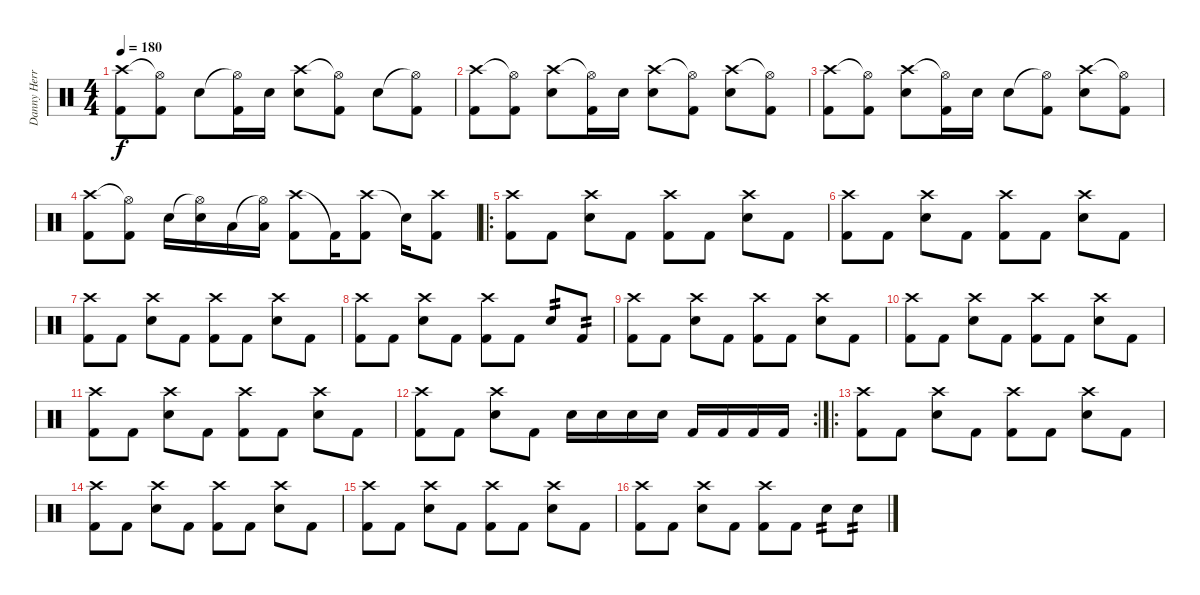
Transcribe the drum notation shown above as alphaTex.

\track ("Danny Herrera" "Danny Herr") {instrument percussion}
\staff {score}
\articulation defaults
\ts (4 4)
\tempo 180
\clef neutral
\ks c
("Crash high (hit)" "Kick (hit) 2").8{dy f} ("Hi-Hat (open)"{t} "Kick (hit) 2").8 "Snare (hit) 2".8 ("Hi-Hat (open)"{t} "Kick (hit) 2").16 "Snare (hit) 2".16 ("Crash high (hit)" "Snare (hit) 2").8 ("Hi-Hat (open)"{t} "Kick (hit) 2").8 "Snare (hit) 2".8 ("Hi-Hat (open)"{t} "Kick (hit) 2").8 |
("Crash high (hit)" "Kick (hit) 2").8 ("Hi-Hat (open)"{t} "Kick (hit) 2").8 ("Crash high (hit)" "Snare (hit) 2").8 ("Hi-Hat (open)"{t} "Kick (hit) 2").16 "Snare (hit) 2".16 ("Crash high (hit)" "Snare (hit) 2").8 ("Hi-Hat (open)"{t} "Kick (hit) 2").8 ("Crash high (hit)" "Snare (hit) 2").8 ("Hi-Hat (open)"{t} "Kick (hit) 2").8 |
("Crash high (hit)" "Kick (hit) 2").8 ("Hi-Hat (open)"{t} "Kick (hit) 2").8 ("Crash high (hit)" "Snare (hit) 2").8 ("Hi-Hat (open)"{t} "Kick (hit) 2").16 "Snare (hit) 2".16 "Snare (hit) 2".8 ("Hi-Hat (open)"{t} "Kick (hit) 2").8 ("Crash high (hit)" "Snare (hit) 2").8 ("Hi-Hat (open)"{t} "Kick (hit) 2").8 |
("Crash high (hit)" "Kick (hit) 2").8 ("Hi-Hat (open)"{t} "Kick (hit) 2").8 "Snare (hit) 2".16 ("Hi-Hat (open)"{t} "Snare (hit) 2").16 "Low Tom (hit)".16 ("Hi-Hat (open)"{t} "Low Tom (hit)").16 ("Crash high (hit)" "Kick (hit) 2").8 "Kick (hit) 2"{t}.16 ("Crash high (hit)" "Kick (hit) 2").8 "Snare (hit)"{t}.16 ("Crash high (hit)" "Kick (hit) 2").8 |
\ro
("Crash high (hit)" "Kick (hit) 2").8 "Kick (hit) 2".8 ("Crash high (hit)" "Snare (hit) 2").8 "Kick (hit) 2".8 ("Crash high (hit)" "Kick (hit) 2").8 "Kick (hit) 2".8 ("Crash high (hit)" "Snare (hit) 2").8 "Kick (hit) 2".8 |
("Crash high (hit)" "Kick (hit) 2").8 "Kick (hit) 2".8 ("Crash high (hit)" "Snare (hit) 2").8 "Kick (hit) 2".8 ("Crash high (hit)" "Kick (hit) 2").8 "Kick (hit) 2".8 ("Crash high (hit)" "Snare (hit) 2").8 "Kick (hit) 2".8 |
("Crash high (hit)" "Kick (hit) 2").8 "Kick (hit) 2".8 ("Crash high (hit)" "Snare (hit) 2").8 "Kick (hit) 2".8 ("Crash high (hit)" "Kick (hit) 2").8 "Kick (hit) 2".8 ("Crash high (hit)" "Snare (hit) 2").8 "Kick (hit) 2".8 |
("Crash high (hit)" "Kick (hit) 2").8 "Kick (hit) 2".8 ("Crash high (hit)" "Snare (hit) 2").8 "Kick (hit) 2".8 ("Crash high (hit)" "Kick (hit) 2").8 "Kick (hit) 2".8 "Snare (hit) 2".8{tp 2} "Kick (hit) 2".8{tp 2} |
("Crash high (hit)" "Kick (hit) 2").8 "Kick (hit) 2".8 ("Crash high (hit)" "Snare (hit) 2").8 "Kick (hit) 2".8 ("Crash high (hit)" "Kick (hit) 2").8 "Kick (hit) 2".8 ("Crash high (hit)" "Snare (hit) 2").8 "Kick (hit) 2".8 |
("Crash high (hit)" "Kick (hit) 2").8 "Kick (hit) 2".8 ("Crash high (hit)" "Snare (hit) 2").8 "Kick (hit) 2".8 ("Crash high (hit)" "Kick (hit) 2").8 "Kick (hit) 2".8 ("Crash high (hit)" "Snare (hit) 2").8 "Kick (hit) 2".8 |
("Crash high (hit)" "Kick (hit) 2").8 "Kick (hit) 2".8 ("Crash high (hit)" "Snare (hit) 2").8 "Kick (hit) 2".8 ("Crash high (hit)" "Kick (hit) 2").8 "Kick (hit) 2".8 ("Crash high (hit)" "Snare (hit) 2").8 "Kick (hit) 2".8 |
\rc 2
("Crash high (hit)" "Kick (hit) 2").8 "Kick (hit) 2".8 ("Crash high (hit)" "Snare (hit) 2").8 "Kick (hit) 2".8 "Snare (hit) 2".16 "Snare (hit) 2".16 "Snare (hit) 2".16 "Snare (hit) 2".16 "Kick (hit) 2".16 "Kick (hit) 2".16 "Kick (hit) 2".16 "Kick (hit) 2".16 |
\ro
("Crash high (hit)" "Kick (hit) 2").8 "Kick (hit) 2".8 ("Crash high (hit)" "Snare (hit) 2").8 "Kick (hit) 2".8 ("Crash high (hit)" "Kick (hit) 2").8 "Kick (hit) 2".8 ("Crash high (hit)" "Snare (hit) 2").8 "Kick (hit) 2".8 |
("Crash high (hit)" "Kick (hit) 2").8 "Kick (hit) 2".8 ("Crash high (hit)" "Snare (hit) 2").8 "Kick (hit) 2".8 ("Crash high (hit)" "Kick (hit) 2").8 "Kick (hit) 2".8 ("Crash high (hit)" "Snare (hit) 2").8 "Kick (hit) 2".8 |
("Crash high (hit)" "Kick (hit) 2").8 "Kick (hit) 2".8 ("Crash high (hit)" "Snare (hit) 2").8 "Kick (hit) 2".8 ("Crash high (hit)" "Kick (hit) 2").8 "Kick (hit) 2".8 ("Crash high (hit)" "Snare (hit) 2").8 "Kick (hit) 2".8 |
("Crash high (hit)" "Kick (hit) 2").8 "Kick (hit) 2".8 ("Crash high (hit)" "Snare (hit) 2").8 "Kick (hit) 2".8 ("Crash high (hit)" "Kick (hit) 2").8 "Kick (hit) 2".8 "Snare (hit) 2".8{tp 2} "Snare (hit) 2".8{tp 2}
